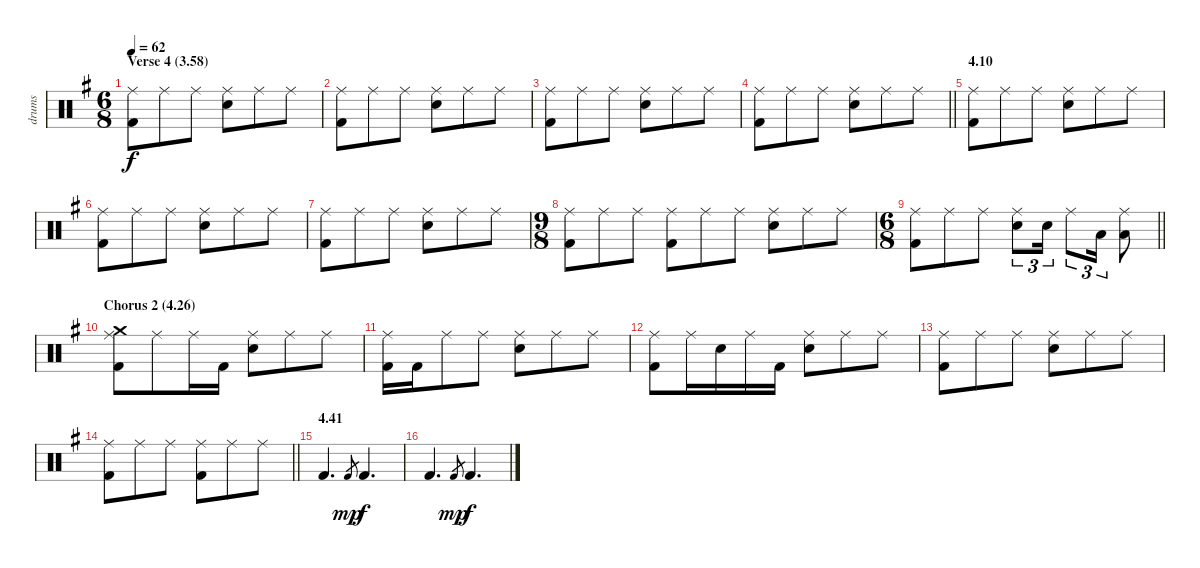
\track ("drums" "drums") {instrument percussion}
\staff {score}
\articulation defaults
\ts (6 8)
\section ("" "Verse 4 (3.58)")
\tempo 62
\clef neutral
\ks g
("Ride (middle)" "Kick (hit) 2").8{dy f} "Ride (middle)".8 "Ride (middle)".8 ("Ride (middle)" "Electric Snare (hit)").8 "Ride (middle)".8 "Ride (middle)".8 |
("Ride (middle)" "Kick (hit) 2").8 "Ride (middle)".8 "Ride (middle)".8 ("Ride (middle)" "Electric Snare (hit)").8 "Ride (middle)".8 "Ride (middle)".8 |
("Ride (middle)" "Kick (hit) 2").8 "Ride (middle)".8 "Ride (middle)".8 ("Ride (middle)" "Electric Snare (hit)").8 "Ride (middle)".8 "Ride (middle)".8 |
\barLineRight lightlight
("Ride (middle)" "Kick (hit) 2").8 "Ride (middle)".8 "Ride (middle)".8 ("Ride (middle)" "Electric Snare (hit)").8 "Ride (middle)".8 "Ride (middle)".8 |
\section ("" "4.10")
("Ride (middle)" "Kick (hit) 2").8 "Ride (middle)".8 "Ride (middle)".8 ("Ride (middle)" "Electric Snare (hit)").8 "Ride (middle)".8 "Ride (middle)".8 |
("Ride (middle)" "Kick (hit) 2").8 "Ride (middle)".8 "Ride (middle)".8 ("Ride (middle)" "Electric Snare (hit)").8 "Ride (middle)".8 "Ride (middle)".8 |
("Ride (middle)" "Kick (hit) 2").8 "Ride (middle)".8 "Ride (middle)".8 ("Ride (middle)" "Electric Snare (hit)").8 "Ride (middle)".8 "Ride (middle)".8 |
\ts (9 8)
("Ride (middle)" "Kick (hit) 2").8 "Ride (middle)".8 "Ride (middle)".8 ("Ride (middle)" "Kick (hit) 2").8 "Ride (middle)".8 "Ride (middle)".8 ("Ride (middle)" "Electric Snare (hit)").8 "Ride (middle)".8 "Ride (middle)".8 |
\ts (6 8)
\barLineRight lightlight
("Ride (middle)" "Kick (hit) 2").8 "Ride (middle)".8 "Ride (middle)".8 ("Ride (middle)" "Electric Snare (hit)").8{tu (3 2)} "Electric Snare (hit)".16{tu (3 2)} "Ride (middle)".8{tu (3 2)} "Low Tom (hit)".16{tu (3 2)} ("Ride (middle)" "Low Tom (hit)").8 |
\section ("" "Chorus 2 (4.26)")
("Ride (middle)" "Crash medium (hit)" "Kick (hit) 2").8 "Ride (middle)".8 "Ride (middle)".16 "Kick (hit) 2".16 ("Ride (middle)" "Electric Snare (hit)").8 "Ride (middle)".8 "Ride (middle)".8 |
("Ride (middle)" "Kick (hit) 2").16 "Kick (hit) 2".16 "Ride (middle)".8 "Ride (middle)".8 ("Ride (middle)" "Electric Snare (hit)").8 "Ride (middle)".8 "Ride (middle)".8 |
("Ride (middle)" "Kick (hit) 2").8 "Ride (middle)".16 "Electric Snare (hit)".16 "Ride (middle)".16 "Kick (hit) 2".16 ("Ride (middle)" "Electric Snare (hit)").8 "Ride (middle)".8 "Ride (middle)".8 |
("Ride (middle)" "Kick (hit) 2").8 "Ride (middle)".8 "Ride (middle)".8 ("Ride (middle)" "Electric Snare (hit)").8 "Ride (middle)".8 "Ride (middle)".8 |
\barLineRight lightlight
("Ride (middle)" "Kick (hit) 2").8 "Ride (middle)".8 "Ride (middle)".8 ("Ride (middle)" "Kick (hit) 2").8 "Ride (middle)".8 "Ride (middle)".8 |
\section ("" "4.41")
"Kick (hit) 2".4{d} "Kick (hit) 2".8{gr dy mp} "Kick (hit) 2".4{d dy f} |
"Kick (hit) 2".4{d} "Kick (hit) 2".8{gr dy mp} "Kick (hit) 2".4{d dy f}
